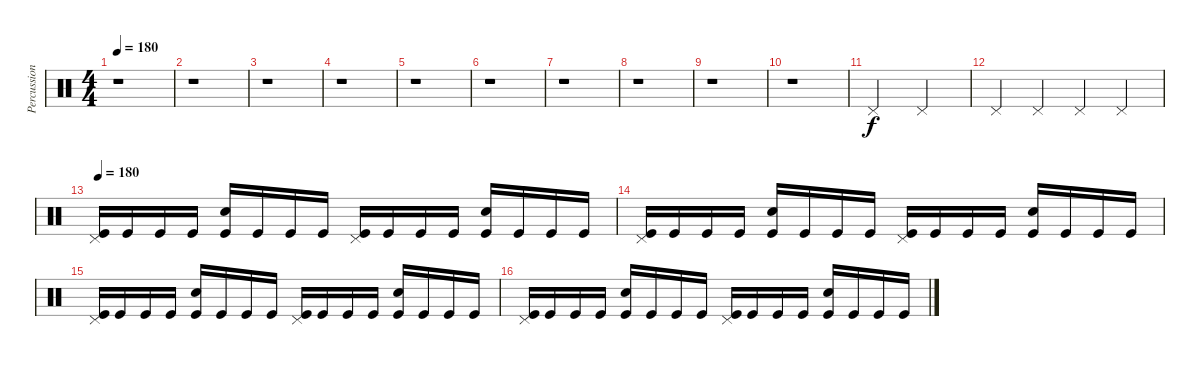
\track ("Percussion" "Percussion") {instrument percussion}
\staff {score}
\articulation defaults
\ts (4 4)
\tempo 180
\clef neutral
\ks c
r.1{dy f} |
r.1 |
r.1 |
r.1 |
r.1 |
r.1 |
r.1 |
r.1 |
r.1 |
r.1 |
"Pedal Hi-Hat (hit)".2 "Pedal Hi-Hat (hit)".2 |
"Pedal Hi-Hat (hit)".4 "Pedal Hi-Hat (hit)".4 "Pedal Hi-Hat (hit)".4 "Pedal Hi-Hat (hit)".4 |
\tempo 180
("Pedal Hi-Hat (hit)" "Kick (hit)").16 "Kick (hit)".16 "Kick (hit)".16 "Kick (hit)".16 ("Electric Snare (hit)" "Kick (hit)").16 "Kick (hit)".16 "Kick (hit)".16 "Kick (hit)".16 ("Pedal Hi-Hat (hit)" "Kick (hit)").16 "Kick (hit)".16 "Kick (hit)".16 "Kick (hit)".16 ("Electric Snare (hit)" "Kick (hit)").16 "Kick (hit)".16 "Kick (hit)".16 "Kick (hit)".16 |
("Pedal Hi-Hat (hit)" "Kick (hit)").16 "Kick (hit)".16 "Kick (hit)".16 "Kick (hit)".16 ("Electric Snare (hit)" "Kick (hit)").16 "Kick (hit)".16 "Kick (hit)".16 "Kick (hit)".16 ("Pedal Hi-Hat (hit)" "Kick (hit)").16 "Kick (hit)".16 "Kick (hit)".16 "Kick (hit)".16 ("Electric Snare (hit)" "Kick (hit)").16 "Kick (hit)".16 "Kick (hit)".16 "Kick (hit)".16 |
("Pedal Hi-Hat (hit)" "Kick (hit)").16 "Kick (hit)".16 "Kick (hit)".16 "Kick (hit)".16 ("Electric Snare (hit)" "Kick (hit)").16 "Kick (hit)".16 "Kick (hit)".16 "Kick (hit)".16 ("Pedal Hi-Hat (hit)" "Kick (hit)").16 "Kick (hit)".16 "Kick (hit)".16 "Kick (hit)".16 ("Electric Snare (hit)" "Kick (hit)").16 "Kick (hit)".16 "Kick (hit)".16 "Kick (hit)".16 |
("Pedal Hi-Hat (hit)" "Kick (hit)").16 "Kick (hit)".16 "Kick (hit)".16 "Kick (hit)".16 ("Electric Snare (hit)" "Kick (hit)").16 "Kick (hit)".16 "Kick (hit)".16 "Kick (hit)".16 ("Pedal Hi-Hat (hit)" "Kick (hit)").16 "Kick (hit)".16 "Kick (hit)".16 "Kick (hit)".16 ("Electric Snare (hit)" "Kick (hit)").16 "Kick (hit)".16 "Kick (hit)".16 "Kick (hit)".16
